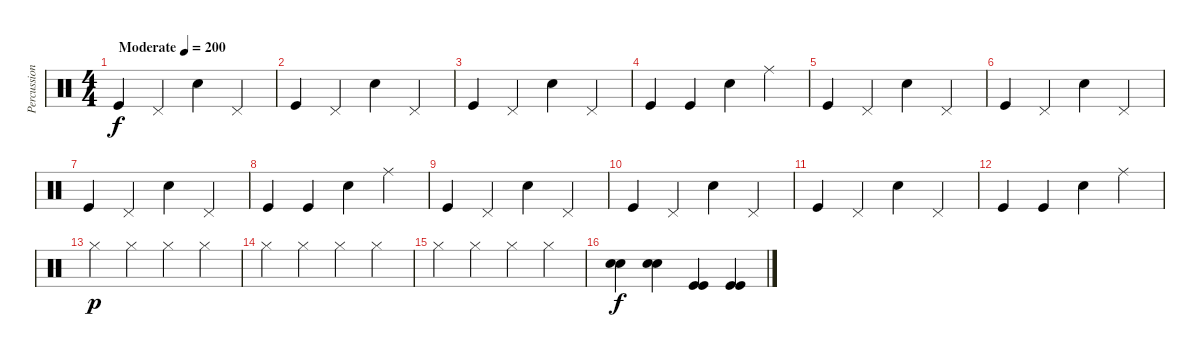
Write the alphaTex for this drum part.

\track ("Percussion" "Percussion") {instrument percussion}
\staff {score}
\articulation defaults
\ts (4 4)
\tempo (200 "Moderate")
\clef neutral
\ks c "Kick (hit)".4{dy f} "Pedal Hi-Hat (hit)".4 "Snare (hit) 2".4 "Pedal Hi-Hat (hit)".4
|
"Kick (hit)".4 "Pedal Hi-Hat (hit)".4 "Snare (hit) 2".4 "Pedal Hi-Hat (hit)".4 |
"Kick (hit)".4 "Pedal Hi-Hat (hit)".4 "Snare (hit) 2".4 "Pedal Hi-Hat (hit)".4 |
"Kick (hit)".4 "Kick (hit)".4 "Snare (hit) 2".4 "Ride (middle)".4 |
"Kick (hit)".4 "Pedal Hi-Hat (hit)".4 "Snare (hit) 2".4 "Pedal Hi-Hat (hit)".4 |
"Kick (hit)".4 "Pedal Hi-Hat (hit)".4 "Snare (hit) 2".4 "Pedal Hi-Hat (hit)".4 |
"Kick (hit)".4 "Pedal Hi-Hat (hit)".4 "Snare (hit) 2".4 "Pedal Hi-Hat (hit)".4 |
"Kick (hit)".4 "Kick (hit)".4 "Snare (hit) 2".4 "Ride (middle)".4 |
"Kick (hit)".4 "Pedal Hi-Hat (hit)".4 "Snare (hit) 2".4 "Pedal Hi-Hat (hit)".4 |
"Kick (hit)".4 "Pedal Hi-Hat (hit)".4 "Snare (hit) 2".4 "Pedal Hi-Hat (hit)".4 |
"Kick (hit)".4 "Pedal Hi-Hat (hit)".4 "Snare (hit) 2".4 "Pedal Hi-Hat (hit)".4 |
"Kick (hit)".4 "Kick (hit)".4 "Snare (hit) 2".4 "Ride (middle)".4 |
"Hi-Hat (closed)".4{dy p} "Hi-Hat (closed)".4 "Hi-Hat (closed)".4 "Hi-Hat (closed)".4 |
"Hi-Hat (closed)".4 "Hi-Hat (closed)".4 "Hi-Hat (closed)".4 "Hi-Hat (closed)".4 |
"Hi-Hat (closed)".4 "Hi-Hat (closed)".4 "Hi-Hat (closed)".4 "Hi-Hat (closed)".4 |
("Snare (hit) 2" "Snare (hit) 2").4{dy f} ("Snare (hit) 2" "Snare (hit) 2").4 ("Kick (hit)" "Kick (hit)").4 ("Kick (hit)" "Kick (hit)").4
